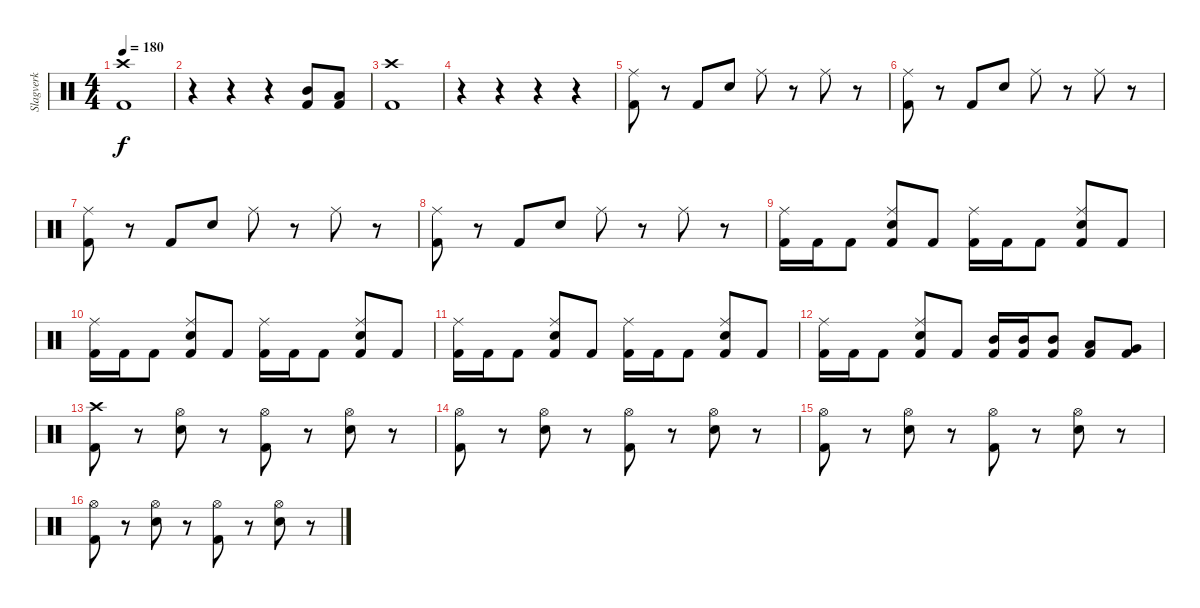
\track ("Slagverk" "Slagverk") {instrument percussion}
\staff {score}
\articulation defaults
\ts (4 4)
\tempo 180
\clef neutral
\ks c
("Crash high (hit)" "Kick (hit) 2").1{dy f} |
r.4 r.4 r.4 ("Mid Tom (hit)" "Kick (hit) 2").8 ("Low Tom (hit)" "Kick (hit) 2").8 |
("Crash high (hit)" "Kick (hit) 2").1 |
r.4 r.4 r.4 r.4 |
("Ride (middle)" "Kick (hit) 2").8 r.8 "Kick (hit) 2".8 "Electric Snare (hit)".8 "Ride (middle)".8 r.8 "Ride (middle)".8 r.8 |
("Ride (middle)" "Kick (hit) 2").8 r.8 "Kick (hit) 2".8 "Electric Snare (hit)".8 "Ride (middle)".8 r.8 "Ride (middle)".8 r.8 |
("Ride (middle)" "Kick (hit) 2").8 r.8 "Kick (hit) 2".8 "Electric Snare (hit)".8 "Ride (middle)".8 r.8 "Ride (middle)".8 r.8 |
("Ride (middle)" "Kick (hit) 2").8 r.8 "Kick (hit) 2".8 "Electric Snare (hit)".8 "Ride (middle)".8 r.8 "Ride (middle)".8 r.8 |
("Ride (middle)" "Kick (hit) 2").16 "Kick (hit) 2".16 "Kick (hit) 2".8 ("Ride (middle)" "Electric Snare (hit)" "Kick (hit) 2").8 "Kick (hit) 2".8 ("Ride (middle)" "Kick (hit) 2").16 "Kick (hit) 2".16 "Kick (hit) 2".8 ("Ride (middle)" "Electric Snare (hit)" "Kick (hit) 2").8 "Kick (hit) 2".8 |
("Ride (middle)" "Kick (hit) 2").16 "Kick (hit) 2".16 "Kick (hit) 2".8 ("Ride (middle)" "Electric Snare (hit)" "Kick (hit) 2").8 "Kick (hit) 2".8 ("Ride (middle)" "Kick (hit) 2").16 "Kick (hit) 2".16 "Kick (hit) 2".8 ("Ride (middle)" "Electric Snare (hit)" "Kick (hit) 2").8 "Kick (hit) 2".8 |
("Ride (middle)" "Kick (hit) 2").16 "Kick (hit) 2".16 "Kick (hit) 2".8 ("Ride (middle)" "Electric Snare (hit)" "Kick (hit) 2").8 "Kick (hit) 2".8 ("Ride (middle)" "Kick (hit) 2").16 "Kick (hit) 2".16 "Kick (hit) 2".8 ("Ride (middle)" "Electric Snare (hit)" "Kick (hit) 2").8 "Kick (hit) 2".8 |
("Ride (middle)" "Kick (hit) 2").16 "Kick (hit) 2".16 "Kick (hit) 2".8 ("Ride (middle)" "Electric Snare (hit)" "Kick (hit) 2").8 "Kick (hit) 2".8 ("Mid Tom (hit)" "Kick (hit) 2").16 ("Mid Tom (hit)" "Kick (hit) 2").16 ("Mid Tom (hit)" "Kick (hit) 2").8 ("Low Tom (hit)" "Kick (hit) 2").8 ("Very Low Tom (hit)" "Kick (hit) 2").8 |
("Crash high (hit)" "Kick (hit) 2").8 r.8 ("Hi-Hat (open)" "Electric Snare (hit)").8 r.8 ("Hi-Hat (open)" "Kick (hit) 2").8 r.8 ("Hi-Hat (open)" "Electric Snare (hit)").8 r.8 |
("Hi-Hat (open)" "Kick (hit) 2").8 r.8 ("Hi-Hat (open)" "Electric Snare (hit)").8 r.8 ("Hi-Hat (open)" "Kick (hit) 2").8 r.8 ("Hi-Hat (open)" "Electric Snare (hit)").8 r.8 |
("Hi-Hat (open)" "Kick (hit) 2").8 r.8 ("Hi-Hat (open)" "Electric Snare (hit)").8 r.8 ("Hi-Hat (open)" "Kick (hit) 2").8 r.8 ("Hi-Hat (open)" "Electric Snare (hit)").8 r.8 |
("Hi-Hat (open)" "Kick (hit) 2").8 r.8 ("Hi-Hat (open)" "Electric Snare (hit)").8 r.8 ("Hi-Hat (open)" "Kick (hit) 2").8 r.8 ("Hi-Hat (open)" "Electric Snare (hit)").8 r.8
